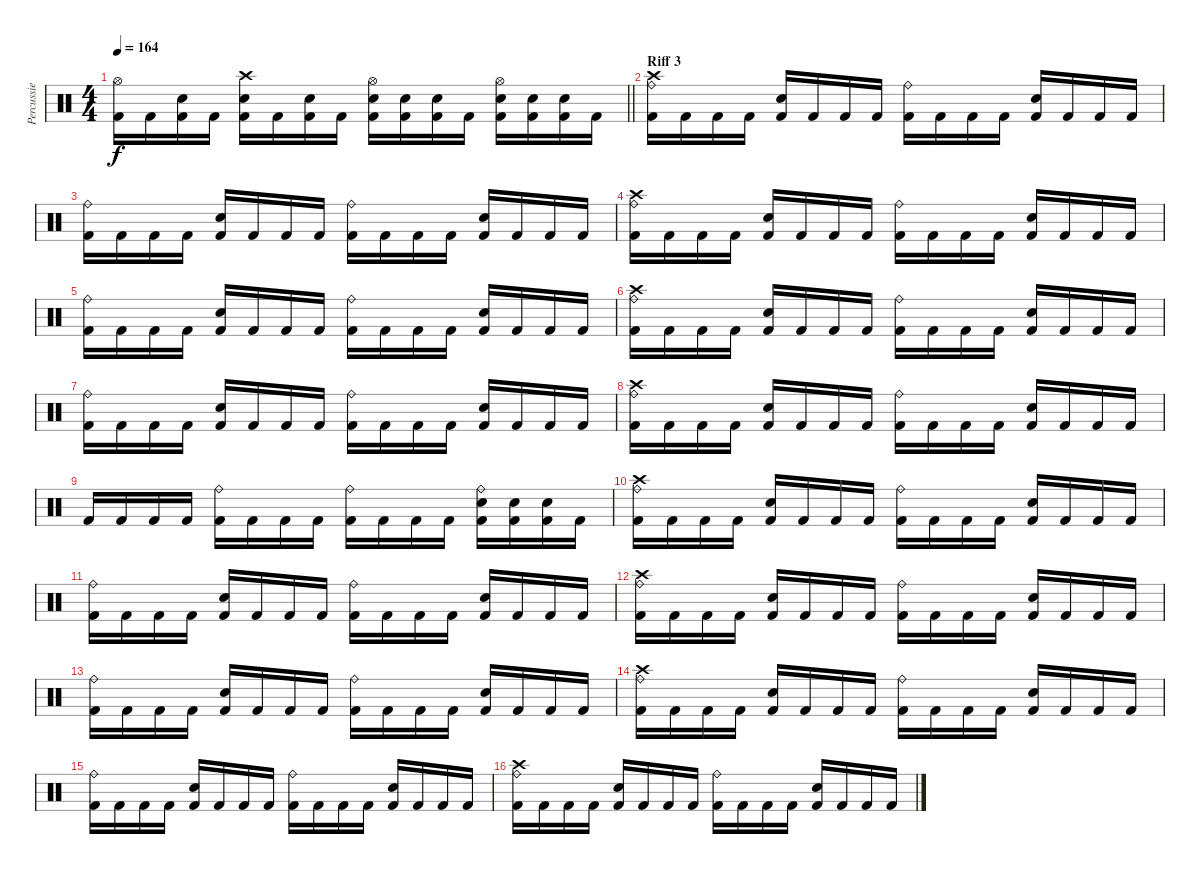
\track ("Percussie" "Percussie") {instrument percussion}
\staff {score}
\articulation defaults
\ts (4 4)
\tempo 164
\clef neutral
\barLineRight lightlight
\ks c
("Hi-Hat (open)" "Kick (hit) 2").16{dy f} "Kick (hit) 2".16 ("Electric Snare (hit)" "Kick (hit) 2").16 "Kick (hit) 2".16 ("Crash high (hit)" "Electric Snare (hit)" "Kick (hit) 2").16 "Kick (hit) 2".16 ("Electric Snare (hit)" "Kick (hit) 2").16 "Kick (hit) 2".16 ("Hi-Hat (open)" "Electric Snare (hit)" "Kick (hit) 2").16 ("Electric Snare (hit)" "Kick (hit) 2").16 ("Electric Snare (hit)" "Kick (hit) 2").16 "Kick (hit) 2".16 ("Hi-Hat (open)" "Electric Snare (hit)" "Kick (hit) 2").16 ("Electric Snare (hit)" "Kick (hit) 2").16 ("Electric Snare (hit)" "Kick (hit) 2").16 "Kick (hit) 2".16 |
\section ("" "Riff 3")
("Ride (bell)" "Crash high (hit)" "Kick (hit) 2").16 "Kick (hit) 2".16 "Kick (hit) 2".16 "Kick (hit) 2".16 ("Electric Snare (hit)" "Kick (hit) 2").16 "Kick (hit) 2".16 "Kick (hit) 2".16 "Kick (hit) 2".16 ("Ride (bell)" "Kick (hit) 2").16 "Kick (hit) 2".16 "Kick (hit) 2".16 "Kick (hit) 2".16 ("Electric Snare (hit)" "Kick (hit) 2").16 "Kick (hit) 2".16 "Kick (hit) 2".16 "Kick (hit) 2".16 |
("Ride (bell)" "Kick (hit) 2").16 "Kick (hit) 2".16 "Kick (hit) 2".16 "Kick (hit) 2".16 ("Electric Snare (hit)" "Kick (hit) 2").16 "Kick (hit) 2".16 "Kick (hit) 2".16 "Kick (hit) 2".16 ("Ride (bell)" "Kick (hit) 2").16 "Kick (hit) 2".16 "Kick (hit) 2".16 "Kick (hit) 2".16 ("Electric Snare (hit)" "Kick (hit) 2").16 "Kick (hit) 2".16 "Kick (hit) 2".16 "Kick (hit) 2".16 |
("Ride (bell)" "Crash high (hit)" "Kick (hit) 2").16 "Kick (hit) 2".16 "Kick (hit) 2".16 "Kick (hit) 2".16 ("Electric Snare (hit)" "Kick (hit) 2").16 "Kick (hit) 2".16 "Kick (hit) 2".16 "Kick (hit) 2".16 ("Ride (bell)" "Kick (hit) 2").16 "Kick (hit) 2".16 "Kick (hit) 2".16 "Kick (hit) 2".16 ("Electric Snare (hit)" "Kick (hit) 2").16 "Kick (hit) 2".16 "Kick (hit) 2".16 "Kick (hit) 2".16 |
("Ride (bell)" "Kick (hit) 2").16 "Kick (hit) 2".16 "Kick (hit) 2".16 "Kick (hit) 2".16 ("Electric Snare (hit)" "Kick (hit) 2").16 "Kick (hit) 2".16 "Kick (hit) 2".16 "Kick (hit) 2".16 ("Ride (bell)" "Kick (hit) 2").16 "Kick (hit) 2".16 "Kick (hit) 2".16 "Kick (hit) 2".16 ("Electric Snare (hit)" "Kick (hit) 2").16 "Kick (hit) 2".16 "Kick (hit) 2".16 "Kick (hit) 2".16 |
("Ride (bell)" "Crash high (hit)" "Kick (hit) 2").16 "Kick (hit) 2".16 "Kick (hit) 2".16 "Kick (hit) 2".16 ("Electric Snare (hit)" "Kick (hit) 2").16 "Kick (hit) 2".16 "Kick (hit) 2".16 "Kick (hit) 2".16 ("Ride (bell)" "Kick (hit) 2").16 "Kick (hit) 2".16 "Kick (hit) 2".16 "Kick (hit) 2".16 ("Electric Snare (hit)" "Kick (hit) 2").16 "Kick (hit) 2".16 "Kick (hit) 2".16 "Kick (hit) 2".16 |
("Ride (bell)" "Kick (hit) 2").16 "Kick (hit) 2".16 "Kick (hit) 2".16 "Kick (hit) 2".16 ("Electric Snare (hit)" "Kick (hit) 2").16 "Kick (hit) 2".16 "Kick (hit) 2".16 "Kick (hit) 2".16 ("Ride (bell)" "Kick (hit) 2").16 "Kick (hit) 2".16 "Kick (hit) 2".16 "Kick (hit) 2".16 ("Electric Snare (hit)" "Kick (hit) 2").16 "Kick (hit) 2".16 "Kick (hit) 2".16 "Kick (hit) 2".16 |
("Ride (bell)" "Crash high (hit)" "Kick (hit) 2").16 "Kick (hit) 2".16 "Kick (hit) 2".16 "Kick (hit) 2".16 ("Electric Snare (hit)" "Kick (hit) 2").16 "Kick (hit) 2".16 "Kick (hit) 2".16 "Kick (hit) 2".16 ("Ride (bell)" "Kick (hit) 2").16 "Kick (hit) 2".16 "Kick (hit) 2".16 "Kick (hit) 2".16 ("Electric Snare (hit)" "Kick (hit) 2").16 "Kick (hit) 2".16 "Kick (hit) 2".16 "Kick (hit) 2".16 |
"Kick (hit) 2".16 "Kick (hit) 2".16 "Kick (hit) 2".16 "Kick (hit) 2".16 ("Ride (bell)" "Kick (hit) 2").16 "Kick (hit) 2".16 "Kick (hit) 2".16 "Kick (hit) 2".16 ("Ride (bell)" "Kick (hit) 2").16 "Kick (hit) 2".16 "Kick (hit) 2".16 "Kick (hit) 2".16 ("Ride (bell)" "Electric Snare (hit)" "Kick (hit) 2").16 ("Electric Snare (hit)" "Kick (hit) 2").16 ("Electric Snare (hit)" "Kick (hit) 2").16 "Kick (hit) 2".16 |
("Ride (bell)" "Crash high (hit)" "Kick (hit) 2").16 "Kick (hit) 2".16 "Kick (hit) 2".16 "Kick (hit) 2".16 ("Electric Snare (hit)" "Kick (hit) 2").16 "Kick (hit) 2".16 "Kick (hit) 2".16 "Kick (hit) 2".16 ("Ride (bell)" "Kick (hit) 2").16 "Kick (hit) 2".16 "Kick (hit) 2".16 "Kick (hit) 2".16 ("Electric Snare (hit)" "Kick (hit) 2").16 "Kick (hit) 2".16 "Kick (hit) 2".16 "Kick (hit) 2".16 |
("Ride (bell)" "Kick (hit) 2").16 "Kick (hit) 2".16 "Kick (hit) 2".16 "Kick (hit) 2".16 ("Electric Snare (hit)" "Kick (hit) 2").16 "Kick (hit) 2".16 "Kick (hit) 2".16 "Kick (hit) 2".16 ("Ride (bell)" "Kick (hit) 2").16 "Kick (hit) 2".16 "Kick (hit) 2".16 "Kick (hit) 2".16 ("Electric Snare (hit)" "Kick (hit) 2").16 "Kick (hit) 2".16 "Kick (hit) 2".16 "Kick (hit) 2".16 |
("Ride (bell)" "Crash high (hit)" "Kick (hit) 2").16 "Kick (hit) 2".16 "Kick (hit) 2".16 "Kick (hit) 2".16 ("Electric Snare (hit)" "Kick (hit) 2").16 "Kick (hit) 2".16 "Kick (hit) 2".16 "Kick (hit) 2".16 ("Ride (bell)" "Kick (hit) 2").16 "Kick (hit) 2".16 "Kick (hit) 2".16 "Kick (hit) 2".16 ("Electric Snare (hit)" "Kick (hit) 2").16 "Kick (hit) 2".16 "Kick (hit) 2".16 "Kick (hit) 2".16 |
("Ride (bell)" "Kick (hit) 2").16 "Kick (hit) 2".16 "Kick (hit) 2".16 "Kick (hit) 2".16 ("Electric Snare (hit)" "Kick (hit) 2").16 "Kick (hit) 2".16 "Kick (hit) 2".16 "Kick (hit) 2".16 ("Ride (bell)" "Kick (hit) 2").16 "Kick (hit) 2".16 "Kick (hit) 2".16 "Kick (hit) 2".16 ("Electric Snare (hit)" "Kick (hit) 2").16 "Kick (hit) 2".16 "Kick (hit) 2".16 "Kick (hit) 2".16 |
("Ride (bell)" "Crash high (hit)" "Kick (hit) 2").16 "Kick (hit) 2".16 "Kick (hit) 2".16 "Kick (hit) 2".16 ("Electric Snare (hit)" "Kick (hit) 2").16 "Kick (hit) 2".16 "Kick (hit) 2".16 "Kick (hit) 2".16 ("Ride (bell)" "Kick (hit) 2").16 "Kick (hit) 2".16 "Kick (hit) 2".16 "Kick (hit) 2".16 ("Electric Snare (hit)" "Kick (hit) 2").16 "Kick (hit) 2".16 "Kick (hit) 2".16 "Kick (hit) 2".16 |
("Ride (bell)" "Kick (hit) 2").16 "Kick (hit) 2".16 "Kick (hit) 2".16 "Kick (hit) 2".16 ("Electric Snare (hit)" "Kick (hit) 2").16 "Kick (hit) 2".16 "Kick (hit) 2".16 "Kick (hit) 2".16 ("Ride (bell)" "Kick (hit) 2").16 "Kick (hit) 2".16 "Kick (hit) 2".16 "Kick (hit) 2".16 ("Electric Snare (hit)" "Kick (hit) 2").16 "Kick (hit) 2".16 "Kick (hit) 2".16 "Kick (hit) 2".16 |
("Ride (bell)" "Crash high (hit)" "Kick (hit) 2").16 "Kick (hit) 2".16 "Kick (hit) 2".16 "Kick (hit) 2".16 ("Electric Snare (hit)" "Kick (hit) 2").16 "Kick (hit) 2".16 "Kick (hit) 2".16 "Kick (hit) 2".16 ("Ride (bell)" "Kick (hit) 2").16 "Kick (hit) 2".16 "Kick (hit) 2".16 "Kick (hit) 2".16 ("Electric Snare (hit)" "Kick (hit) 2").16 "Kick (hit) 2".16 "Kick (hit) 2".16 "Kick (hit) 2".16
